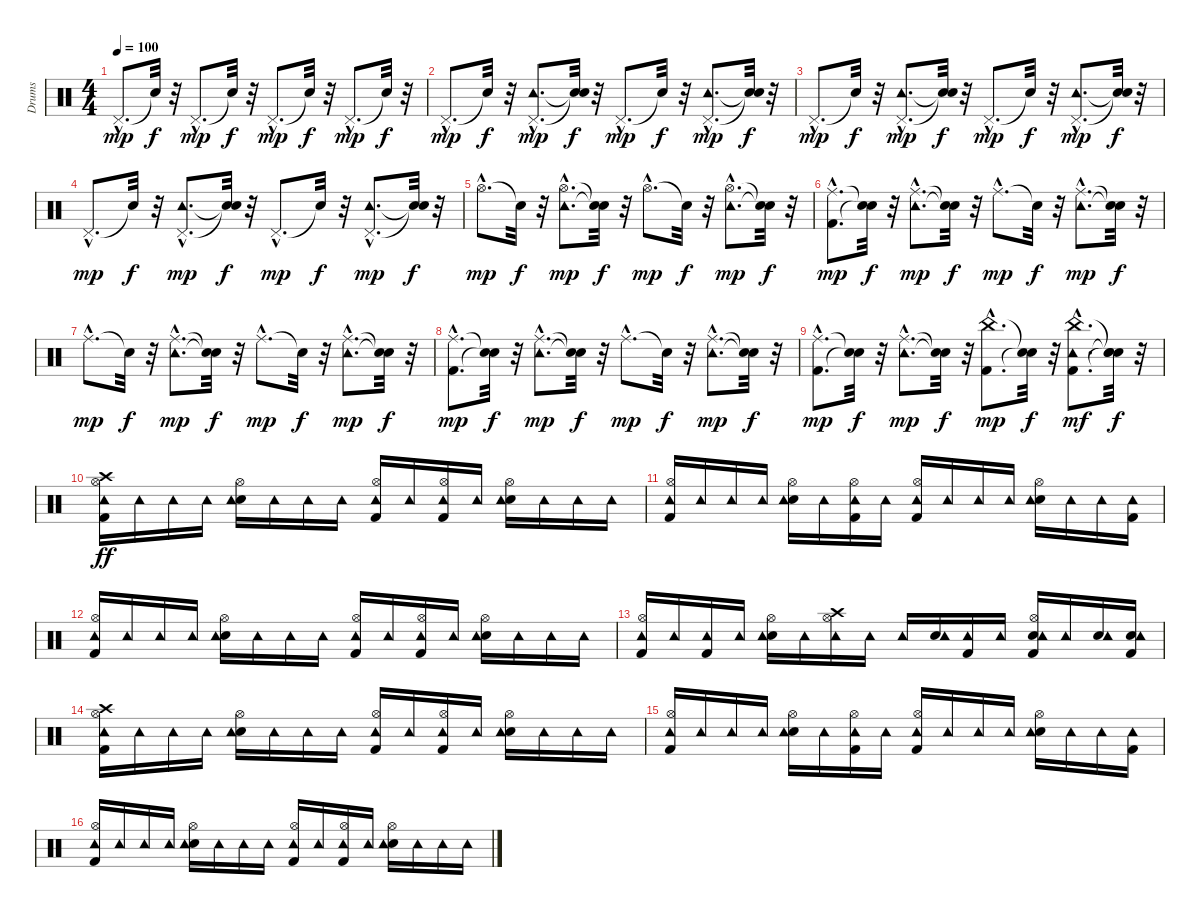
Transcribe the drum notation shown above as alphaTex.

\track ("Drums" "Drums") {instrument percussion}
\staff {score}
\articulation defaults
\ts (4 4)
\tempo 100
\clef neutral
\ks c "Pedal Hi-Hat (hit)"{hac}.8{d dy mp} "Snare (hit)"{t}.32{dy f}
r.32 "Pedal Hi-Hat (hit)"{hac}.8{d dy mp} "Snare (hit)"{t}.32{dy f} r.32 "Pedal Hi-Hat (hit)"{hac}.8{d dy mp} "Snare (hit)"{t}.32{dy f} r.32 "Pedal Hi-Hat (hit)"{hac}.8{d dy mp} "Snare (hit)"{t}.32{dy f} r.32 |
"Pedal Hi-Hat (hit)"{hac}.8{d dy mp} "Snare (hit)"{t}.32{dy f} r.32 ("Pedal Hi-Hat (hit)"{hac} "Tambourine (hit)"{hac}).8{d dy mp} ("Snare (hit)"{t} "Snare (hit)"{t}).32{dy f} r.32 "Pedal Hi-Hat (hit)"{hac}.8{d dy mp} "Snare (hit)"{t}.32{dy f} r.32 ("Pedal Hi-Hat (hit)"{hac} "Tambourine (hit)"{hac}).8{d dy mp} ("Snare (hit)"{t} "Snare (hit)"{t}).32{dy f} r.32 |
"Pedal Hi-Hat (hit)"{hac}.8{d dy mp} "Snare (hit)"{t}.32{dy f} r.32 ("Pedal Hi-Hat (hit)"{hac} "Tambourine (hit)"{hac}).8{d dy mp} ("Snare (hit)"{t} "Snare (hit)"{t}).32{dy f} r.32 "Pedal Hi-Hat (hit)"{hac}.8{d dy mp} "Snare (hit)"{t}.32{dy f} r.32 ("Pedal Hi-Hat (hit)"{hac} "Tambourine (hit)"{hac}).8{d dy mp} ("Snare (hit)"{t} "Snare (hit)"{t}).32{dy f} r.32 |
"Pedal Hi-Hat (hit)"{hac}.8{d dy mp} "Snare (hit)"{t}.32{dy f} r.32 ("Pedal Hi-Hat (hit)"{hac} "Tambourine (hit)"{hac}).8{d dy mp} ("Snare (hit)"{t} "Snare (hit)"{t}).32{dy f} r.32 "Pedal Hi-Hat (hit)"{hac}.8{d dy mp} "Snare (hit)"{t}.32{dy f} r.32 ("Pedal Hi-Hat (hit)"{hac} "Tambourine (hit)"{hac}).8{d dy mp} ("Snare (hit)"{t} "Snare (hit)"{t}).32{dy f} r.32 |
"Hi-Hat (open)"{hac}.8{d dy mp} "Snare (hit)"{t}.32{dy f} r.32 ("Hi-Hat (open)"{hac} "Tambourine (hit)"{hac}).8{d dy mp} ("Snare (hit)"{t} "Snare (hit)"{t}).32{dy f} r.32 "Hi-Hat (open)"{hac}.8{d dy mp} "Snare (hit)"{t}.32{dy f} r.32 ("Hi-Hat (open)"{hac} "Tambourine (hit)"{hac}).8{d dy mp} ("Snare (hit)"{t} "Snare (hit)"{t}).32{dy f} r.32 |
("Kick (hit) 2"{hac} "Ride (middle)"{hac}).8{d dy mp} ("Snare (hit)"{t} "Snare (hit)"{t}).32{dy f} r.32 ("Ride (middle)"{hac} "Tambourine (hit)"{hac}).8{d dy mp} ("Snare (hit)"{t} "Snare (hit)"{t}).32{dy f} r.32 "Ride (middle)"{hac}.8{d dy mp} "Snare (hit)"{t}.32{dy f} r.32 ("Ride (middle)"{hac} "Tambourine (hit)"{hac}).8{d dy mp} ("Snare (hit)"{t} "Snare (hit)"{t}).32{dy f} r.32 |
"Ride (middle)"{hac}.8{d dy mp} "Snare (hit)"{t}.32{dy f} r.32 ("Ride (middle)"{hac} "Tambourine (hit)"{hac}).8{d dy mp} ("Snare (hit)"{t} "Snare (hit)"{t}).32{dy f} r.32 "Ride (middle)"{hac}.8{d dy mp} "Snare (hit)"{t}.32{dy f} r.32 ("Ride (middle)"{hac} "Tambourine (hit)"{hac}).8{d dy mp} ("Snare (hit)"{t} "Snare (hit)"{t}).32{dy f} r.32 |
("Kick (hit) 2"{hac} "Ride (middle)"{hac}).8{d dy mp} ("Snare (hit)"{t} "Snare (hit)"{t}).32{dy f} r.32 ("Ride (middle)"{hac} "Tambourine (hit)"{hac}).8{d dy mp} ("Snare (hit)"{t} "Snare (hit)"{t}).32{dy f} r.32 "Ride (middle)"{hac}.8{d dy mp} "Snare (hit)"{t}.32{dy f} r.32 ("Ride (middle)"{hac} "Tambourine (hit)"{hac}).8{d dy mp} ("Snare (hit)"{t} "Snare (hit)"{t}).32{dy f} r.32 |
("Kick (hit) 2"{hac} "Ride (middle)"{hac}).8{d dy mp} ("Snare (hit)"{t} "Snare (hit)"{t}).32{dy f} r.32 ("Ride (middle)"{hac} "Tambourine (hit)"{hac}).8{d dy mp} ("Snare (hit)"{t} "Snare (hit)"{t}).32{dy f} r.32 ("Kick (hit) 2"{hac} "China (hit)"{hac}).8{d dy mp} ("Snare (hit)"{t} "Snare (hit)"{t}).32{dy f} r.32 ("Kick (hit) 2"{hac} "China (hit)"{hac} "Tambourine (hit)"{hac}).8{d dy mf} ("Snare (hit)"{t} "Snare (hit)"{t} "Snare (hit)"{t}).32{dy f} r.32 |
("Kick (hit) 2" "Hi-Hat (open)" "Crash high (hit)" "Tambourine (hit)").16{dy ff} "Tambourine (hit)".16 "Tambourine (hit)".16 "Tambourine (hit)".16 ("Snare (hit) 2" "Hi-Hat (open)" "Tambourine (hit)").16 "Tambourine (hit)".16 "Tambourine (hit)".16 "Tambourine (hit)".16 ("Kick (hit) 2" "Hi-Hat (open)" "Tambourine (hit)").16 "Tambourine (hit)".16 ("Kick (hit) 2" "Hi-Hat (open)" "Tambourine (hit)").16 "Tambourine (hit)".16 ("Snare (hit) 2" "Hi-Hat (open)" "Tambourine (hit)").16 "Tambourine (hit)".16 "Tambourine (hit)".16 "Tambourine (hit)".16 |
("Kick (hit) 2" "Hi-Hat (open)" "Tambourine (hit)").16 "Tambourine (hit)".16 "Tambourine (hit)".16 "Tambourine (hit)".16 ("Snare (hit) 2" "Hi-Hat (open)" "Tambourine (hit)").16 "Tambourine (hit)".16 ("Kick (hit) 2" "Hi-Hat (open)" "Tambourine (hit)").16 "Tambourine (hit)".16 ("Kick (hit) 2" "Hi-Hat (open)" "Tambourine (hit)").16 "Tambourine (hit)".16 "Tambourine (hit)".16 "Tambourine (hit)".16 ("Snare (hit) 2" "Hi-Hat (open)" "Tambourine (hit)").16 "Tambourine (hit)".16 "Tambourine (hit)".16 ("Kick (hit) 2" "Tambourine (hit)").16 |
("Kick (hit) 2" "Hi-Hat (open)" "Tambourine (hit)").16 "Tambourine (hit)".16 "Tambourine (hit)".16 "Tambourine (hit)".16 ("Snare (hit) 2" "Hi-Hat (open)" "Tambourine (hit)").16 "Tambourine (hit)".16 "Tambourine (hit)".16 "Tambourine (hit)".16 ("Kick (hit) 2" "Hi-Hat (open)" "Tambourine (hit)").16 "Tambourine (hit)".16 ("Kick (hit) 2" "Hi-Hat (open)" "Tambourine (hit)").16 "Tambourine (hit)".16 ("Snare (hit) 2" "Hi-Hat (open)" "Tambourine (hit)").16 "Tambourine (hit)".16 "Tambourine (hit)".16 "Tambourine (hit)".16 |
("Kick (hit) 2" "Hi-Hat (open)" "Tambourine (hit)").16 "Tambourine (hit)".16 ("Kick (hit) 2" "Tambourine (hit)").16 "Tambourine (hit)".16 ("Snare (hit) 2" "Hi-Hat (open)" "Tambourine (hit)").16 "Tambourine (hit)".16 ("Hi-Hat (open)" "Crash high (hit)" "Tambourine (hit)").16 "Tambourine (hit)".16 "Tambourine (hit)".16 ("Snare (hit) 2" "Tambourine (hit)").16 ("Kick (hit) 2" "Tambourine (hit)").16 "Tambourine (hit)".16 ("Kick (hit) 2" "Snare (hit) 2" "Hi-Hat (open)" "Tambourine (hit)").16 "Tambourine (hit)".16 ("Snare (hit) 2" "Tambourine (hit)").16 ("Kick (hit) 2" "Snare (hit) 2" "Tambourine (hit)").16 |
("Kick (hit) 2" "Hi-Hat (open)" "Crash high (hit)" "Tambourine (hit)").16 "Tambourine (hit)".16 "Tambourine (hit)".16 "Tambourine (hit)".16 ("Snare (hit) 2" "Hi-Hat (open)" "Tambourine (hit)").16 "Tambourine (hit)".16 "Tambourine (hit)".16 "Tambourine (hit)".16 ("Kick (hit) 2" "Hi-Hat (open)" "Tambourine (hit)").16 "Tambourine (hit)".16 ("Kick (hit) 2" "Hi-Hat (open)" "Tambourine (hit)").16 "Tambourine (hit)".16 ("Snare (hit) 2" "Hi-Hat (open)" "Tambourine (hit)").16 "Tambourine (hit)".16 "Tambourine (hit)".16 "Tambourine (hit)".16 |
("Kick (hit) 2" "Hi-Hat (open)" "Tambourine (hit)").16 "Tambourine (hit)".16 "Tambourine (hit)".16 "Tambourine (hit)".16 ("Snare (hit) 2" "Hi-Hat (open)" "Tambourine (hit)").16 "Tambourine (hit)".16 ("Kick (hit) 2" "Hi-Hat (open)" "Tambourine (hit)").16 "Tambourine (hit)".16 ("Kick (hit) 2" "Hi-Hat (open)" "Tambourine (hit)").16 "Tambourine (hit)".16 "Tambourine (hit)".16 "Tambourine (hit)".16 ("Snare (hit) 2" "Hi-Hat (open)" "Tambourine (hit)").16 "Tambourine (hit)".16 "Tambourine (hit)".16 ("Kick (hit) 2" "Tambourine (hit)").16 |
("Kick (hit) 2" "Hi-Hat (open)" "Tambourine (hit)").16 "Tambourine (hit)".16 "Tambourine (hit)".16 "Tambourine (hit)".16 ("Snare (hit) 2" "Hi-Hat (open)" "Tambourine (hit)").16 "Tambourine (hit)".16 "Tambourine (hit)".16 "Tambourine (hit)".16 ("Kick (hit) 2" "Hi-Hat (open)" "Tambourine (hit)").16 "Tambourine (hit)".16 ("Kick (hit) 2" "Hi-Hat (open)" "Tambourine (hit)").16 "Tambourine (hit)".16 ("Snare (hit) 2" "Hi-Hat (open)" "Tambourine (hit)").16 "Tambourine (hit)".16 "Tambourine (hit)".16 "Tambourine (hit)".16
